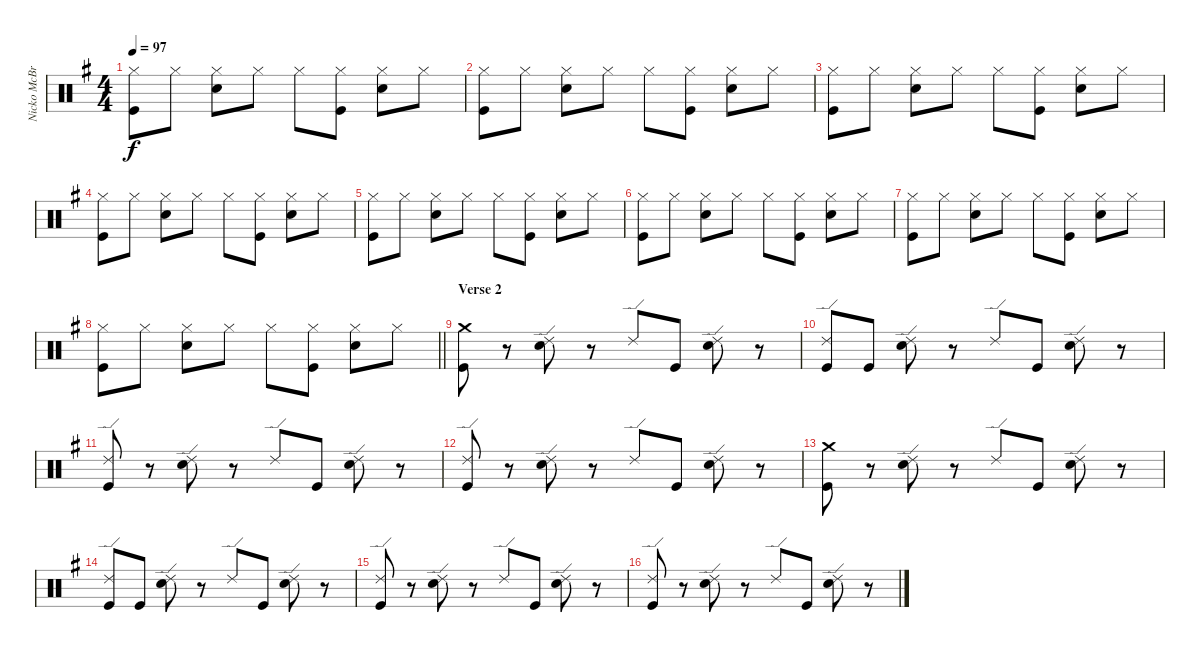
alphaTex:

\track ("Nicko McBrain (Drums)" "Nicko McBr") {instrument percussion}
\staff {score}
\articulation defaults
\ts (4 4)
\tempo 97
\clef neutral
\ks eminor
("Hi-Hat (closed)" "Kick (hit)").8{dy f} "Hi-Hat (closed)".8 ("Hi-Hat (closed)" "Snare (hit) 2").8 "Hi-Hat (closed)".8 "Hi-Hat (closed)".8 ("Hi-Hat (closed)" "Kick (hit)").8 ("Hi-Hat (closed)" "Snare (hit) 2").8 "Hi-Hat (closed)".8 |
("Hi-Hat (closed)" "Kick (hit)").8 "Hi-Hat (closed)".8 ("Hi-Hat (closed)" "Snare (hit) 2").8 "Hi-Hat (closed)".8 "Hi-Hat (closed)".8 ("Hi-Hat (closed)" "Kick (hit)").8 ("Hi-Hat (closed)" "Snare (hit) 2").8 "Hi-Hat (closed)".8 |
("Hi-Hat (closed)" "Kick (hit)").8 "Hi-Hat (closed)".8 ("Hi-Hat (closed)" "Snare (hit) 2").8 "Hi-Hat (closed)".8 "Hi-Hat (closed)".8 ("Hi-Hat (closed)" "Kick (hit)").8 ("Hi-Hat (closed)" "Snare (hit) 2").8 "Hi-Hat (closed)".8 |
("Hi-Hat (closed)" "Kick (hit)").8 "Hi-Hat (closed)".8 ("Hi-Hat (closed)" "Snare (hit) 2").8 "Hi-Hat (closed)".8 "Hi-Hat (closed)".8 ("Hi-Hat (closed)" "Kick (hit)").8 ("Hi-Hat (closed)" "Snare (hit) 2").8 "Hi-Hat (closed)".8 |
("Hi-Hat (closed)" "Kick (hit)").8 "Hi-Hat (closed)".8 ("Hi-Hat (closed)" "Snare (hit) 2").8 "Hi-Hat (closed)".8 "Hi-Hat (closed)".8 ("Hi-Hat (closed)" "Kick (hit)").8 ("Hi-Hat (closed)" "Snare (hit) 2").8 "Hi-Hat (closed)".8 |
("Hi-Hat (closed)" "Kick (hit)").8 "Hi-Hat (closed)".8 ("Hi-Hat (closed)" "Snare (hit) 2").8 "Hi-Hat (closed)".8 "Hi-Hat (closed)".8 ("Hi-Hat (closed)" "Kick (hit)").8 ("Hi-Hat (closed)" "Snare (hit) 2").8 "Hi-Hat (closed)".8 |
("Hi-Hat (closed)" "Kick (hit)").8 "Hi-Hat (closed)".8 ("Hi-Hat (closed)" "Snare (hit) 2").8 "Hi-Hat (closed)".8 "Hi-Hat (closed)".8 ("Hi-Hat (closed)" "Kick (hit)").8 ("Hi-Hat (closed)" "Snare (hit) 2").8 "Hi-Hat (closed)".8 |
\barLineRight lightlight
("Hi-Hat (closed)" "Kick (hit)").8 "Hi-Hat (closed)".8 ("Hi-Hat (closed)" "Snare (hit) 2").8 "Hi-Hat (closed)".8 "Hi-Hat (closed)".8 ("Hi-Hat (closed)" "Kick (hit)").8 ("Hi-Hat (closed)" "Snare (hit) 2").8 "Hi-Hat (closed)".8 |
\section ("" "Verse 2")
("Crash medium (hit)" "Kick (hit)").8 r.8 ("Ride (edge) 2" "Snare (hit) 2").8 r.8 "Ride (edge) 2".8 "Kick (hit)".8 ("Ride (edge) 2" "Snare (hit) 2").8 r.8 |
("Ride (edge) 2" "Kick (hit)").8 "Kick (hit)".8 ("Ride (edge) 2" "Snare (hit) 2").8 r.8 "Ride (edge) 2".8 "Kick (hit)".8 ("Ride (edge) 2" "Snare (hit) 2").8 r.8 |
("Ride (edge) 2" "Kick (hit)").8 r.8 ("Ride (edge) 2" "Snare (hit) 2").8 r.8 "Ride (edge) 2".8 "Kick (hit)".8 ("Ride (edge) 2" "Snare (hit) 2").8 r.8 |
("Ride (edge) 2" "Kick (hit)").8 r.8 ("Ride (edge) 2" "Snare (hit) 2").8 r.8 "Ride (edge) 2".8 "Kick (hit)".8 ("Ride (edge) 2" "Snare (hit) 2").8 r.8 |
("Crash medium (hit)" "Kick (hit)").8 r.8 ("Ride (edge) 2" "Snare (hit) 2").8 r.8 "Ride (edge) 2".8 "Kick (hit)".8 ("Ride (edge) 2" "Snare (hit) 2").8 r.8 |
("Ride (edge) 2" "Kick (hit)").8 "Kick (hit)".8 ("Ride (edge) 2" "Snare (hit) 2").8 r.8 "Ride (edge) 2".8 "Kick (hit)".8 ("Ride (edge) 2" "Snare (hit) 2").8 r.8 |
("Ride (edge) 2" "Kick (hit)").8 r.8 ("Ride (edge) 2" "Snare (hit) 2").8 r.8 "Ride (edge) 2".8 "Kick (hit)".8 ("Ride (edge) 2" "Snare (hit) 2").8 r.8 |
("Ride (edge) 2" "Kick (hit)").8 r.8 ("Ride (edge) 2" "Snare (hit) 2").8 r.8 "Ride (edge) 2".8 "Kick (hit)".8 ("Ride (edge) 2" "Snare (hit) 2").8 r.8
